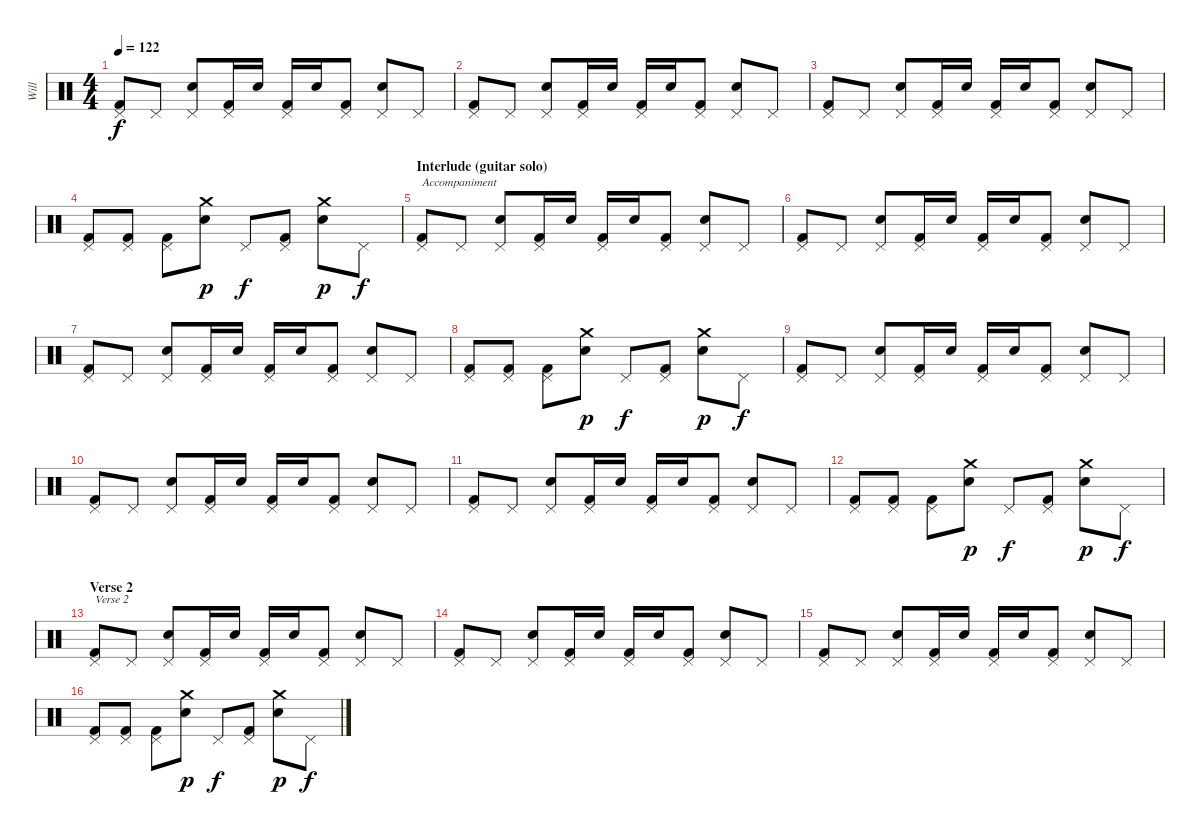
\track ("Will" "Will") {instrument percussion}
\staff {score}
\articulation defaults
\ts (4 4)
\tempo 122
\clef neutral
\ks c
("Pedal Hi-Hat (hit)" "Kick (hit) 2").8{dy f} "Pedal Hi-Hat (hit)".8 ("Pedal Hi-Hat (hit)" "Electric Snare (hit)").8 ("Pedal Hi-Hat (hit)" "Kick (hit) 2").16 "Electric Snare (hit)".16 ("Pedal Hi-Hat (hit)" "Kick (hit) 2").16 "Electric Snare (hit)".16 ("Pedal Hi-Hat (hit)" "Kick (hit) 2").8 ("Pedal Hi-Hat (hit)" "Electric Snare (hit)").8 "Pedal Hi-Hat (hit)".8 |
("Pedal Hi-Hat (hit)" "Kick (hit) 2").8 "Pedal Hi-Hat (hit)".8 ("Pedal Hi-Hat (hit)" "Electric Snare (hit)").8 ("Pedal Hi-Hat (hit)" "Kick (hit) 2").16 "Electric Snare (hit)".16 ("Pedal Hi-Hat (hit)" "Kick (hit) 2").16 "Electric Snare (hit)".16 ("Pedal Hi-Hat (hit)" "Kick (hit) 2").8 ("Pedal Hi-Hat (hit)" "Electric Snare (hit)").8 "Pedal Hi-Hat (hit)".8 |
("Pedal Hi-Hat (hit)" "Kick (hit) 2").8 "Pedal Hi-Hat (hit)".8 ("Pedal Hi-Hat (hit)" "Electric Snare (hit)").8 ("Pedal Hi-Hat (hit)" "Kick (hit) 2").16 "Electric Snare (hit)".16 ("Pedal Hi-Hat (hit)" "Kick (hit) 2").16 "Electric Snare (hit)".16 ("Pedal Hi-Hat (hit)" "Kick (hit) 2").8 ("Pedal Hi-Hat (hit)" "Electric Snare (hit)").8 "Pedal Hi-Hat (hit)".8 |
("Pedal Hi-Hat (hit)" "Kick (hit) 2").8 ("Pedal Hi-Hat (hit)" "Kick (hit) 2").8 ("Pedal Hi-Hat (hit)" "Kick (hit) 2").8 ("Crash medium (hit)" "Electric Snare (hit)").8{dy p} "Pedal Hi-Hat (hit)".8{dy f} ("Pedal Hi-Hat (hit)" "Kick (hit) 2").8 ("Crash medium (hit)" "Electric Snare (hit)").8{dy p} "Pedal Hi-Hat (hit)".8{dy f} |
\section ("" "Interlude (guitar solo)")
("Pedal Hi-Hat (hit)" "Kick (hit) 2").8{txt "Accompaniment"} "Pedal Hi-Hat (hit)".8 ("Pedal Hi-Hat (hit)" "Electric Snare (hit)").8 ("Pedal Hi-Hat (hit)" "Kick (hit) 2").16 "Electric Snare (hit)".16 ("Pedal Hi-Hat (hit)" "Kick (hit) 2").16 "Electric Snare (hit)".16 ("Pedal Hi-Hat (hit)" "Kick (hit) 2").8 ("Pedal Hi-Hat (hit)" "Electric Snare (hit)").8 "Pedal Hi-Hat (hit)".8 |
("Pedal Hi-Hat (hit)" "Kick (hit) 2").8 "Pedal Hi-Hat (hit)".8 ("Pedal Hi-Hat (hit)" "Electric Snare (hit)").8 ("Pedal Hi-Hat (hit)" "Kick (hit) 2").16 "Electric Snare (hit)".16 ("Pedal Hi-Hat (hit)" "Kick (hit) 2").16 "Electric Snare (hit)".16 ("Pedal Hi-Hat (hit)" "Kick (hit) 2").8 ("Pedal Hi-Hat (hit)" "Electric Snare (hit)").8 "Pedal Hi-Hat (hit)".8 |
("Pedal Hi-Hat (hit)" "Kick (hit) 2").8 "Pedal Hi-Hat (hit)".8 ("Pedal Hi-Hat (hit)" "Electric Snare (hit)").8 ("Pedal Hi-Hat (hit)" "Kick (hit) 2").16 "Electric Snare (hit)".16 ("Pedal Hi-Hat (hit)" "Kick (hit) 2").16 "Electric Snare (hit)".16 ("Pedal Hi-Hat (hit)" "Kick (hit) 2").8 ("Pedal Hi-Hat (hit)" "Electric Snare (hit)").8 "Pedal Hi-Hat (hit)".8 |
("Pedal Hi-Hat (hit)" "Kick (hit) 2").8 ("Pedal Hi-Hat (hit)" "Kick (hit) 2").8 ("Pedal Hi-Hat (hit)" "Kick (hit) 2").8 ("Crash medium (hit)" "Electric Snare (hit)").8{dy p} "Pedal Hi-Hat (hit)".8{dy f} ("Pedal Hi-Hat (hit)" "Kick (hit) 2").8 ("Crash medium (hit)" "Electric Snare (hit)").8{dy p} "Pedal Hi-Hat (hit)".8{dy f} |
("Pedal Hi-Hat (hit)" "Kick (hit) 2").8 "Pedal Hi-Hat (hit)".8 ("Pedal Hi-Hat (hit)" "Electric Snare (hit)").8 ("Pedal Hi-Hat (hit)" "Kick (hit) 2").16 "Electric Snare (hit)".16 ("Pedal Hi-Hat (hit)" "Kick (hit) 2").16 "Electric Snare (hit)".16 ("Pedal Hi-Hat (hit)" "Kick (hit) 2").8 ("Pedal Hi-Hat (hit)" "Electric Snare (hit)").8 "Pedal Hi-Hat (hit)".8 |
("Pedal Hi-Hat (hit)" "Kick (hit) 2").8 "Pedal Hi-Hat (hit)".8 ("Pedal Hi-Hat (hit)" "Electric Snare (hit)").8 ("Pedal Hi-Hat (hit)" "Kick (hit) 2").16 "Electric Snare (hit)".16 ("Pedal Hi-Hat (hit)" "Kick (hit) 2").16 "Electric Snare (hit)".16 ("Pedal Hi-Hat (hit)" "Kick (hit) 2").8 ("Pedal Hi-Hat (hit)" "Electric Snare (hit)").8 "Pedal Hi-Hat (hit)".8 |
("Pedal Hi-Hat (hit)" "Kick (hit) 2").8 "Pedal Hi-Hat (hit)".8 ("Pedal Hi-Hat (hit)" "Electric Snare (hit)").8 ("Pedal Hi-Hat (hit)" "Kick (hit) 2").16 "Electric Snare (hit)".16 ("Pedal Hi-Hat (hit)" "Kick (hit) 2").16 "Electric Snare (hit)".16 ("Pedal Hi-Hat (hit)" "Kick (hit) 2").8 ("Pedal Hi-Hat (hit)" "Electric Snare (hit)").8 "Pedal Hi-Hat (hit)".8 |
("Pedal Hi-Hat (hit)" "Kick (hit) 2").8 ("Pedal Hi-Hat (hit)" "Kick (hit) 2").8 ("Pedal Hi-Hat (hit)" "Kick (hit) 2").8 ("Crash medium (hit)" "Electric Snare (hit)").8{dy p} "Pedal Hi-Hat (hit)".8{dy f} ("Pedal Hi-Hat (hit)" "Kick (hit) 2").8 ("Crash medium (hit)" "Electric Snare (hit)").8{dy p} "Pedal Hi-Hat (hit)".8{dy f} |
\section ("" "Verse 2")
("Pedal Hi-Hat (hit)" "Kick (hit) 2").8{txt "Verse 2"} "Pedal Hi-Hat (hit)".8 ("Pedal Hi-Hat (hit)" "Electric Snare (hit)").8 ("Pedal Hi-Hat (hit)" "Kick (hit) 2").16 "Electric Snare (hit)".16 ("Pedal Hi-Hat (hit)" "Kick (hit) 2").16 "Electric Snare (hit)".16 ("Pedal Hi-Hat (hit)" "Kick (hit) 2").8 ("Pedal Hi-Hat (hit)" "Electric Snare (hit)").8 "Pedal Hi-Hat (hit)".8 |
("Pedal Hi-Hat (hit)" "Kick (hit) 2").8 "Pedal Hi-Hat (hit)".8 ("Pedal Hi-Hat (hit)" "Electric Snare (hit)").8 ("Pedal Hi-Hat (hit)" "Kick (hit) 2").16 "Electric Snare (hit)".16 ("Pedal Hi-Hat (hit)" "Kick (hit) 2").16 "Electric Snare (hit)".16 ("Pedal Hi-Hat (hit)" "Kick (hit) 2").8 ("Pedal Hi-Hat (hit)" "Electric Snare (hit)").8 "Pedal Hi-Hat (hit)".8 |
("Pedal Hi-Hat (hit)" "Kick (hit) 2").8 "Pedal Hi-Hat (hit)".8 ("Pedal Hi-Hat (hit)" "Electric Snare (hit)").8 ("Pedal Hi-Hat (hit)" "Kick (hit) 2").16 "Electric Snare (hit)".16 ("Pedal Hi-Hat (hit)" "Kick (hit) 2").16 "Electric Snare (hit)".16 ("Pedal Hi-Hat (hit)" "Kick (hit) 2").8 ("Pedal Hi-Hat (hit)" "Electric Snare (hit)").8 "Pedal Hi-Hat (hit)".8 |
("Pedal Hi-Hat (hit)" "Kick (hit) 2").8 ("Pedal Hi-Hat (hit)" "Kick (hit) 2").8 ("Pedal Hi-Hat (hit)" "Kick (hit) 2").8 ("Crash medium (hit)" "Electric Snare (hit)").8{dy p} "Pedal Hi-Hat (hit)".8{dy f} ("Pedal Hi-Hat (hit)" "Kick (hit) 2").8 ("Crash medium (hit)" "Electric Snare (hit)").8{dy p} "Pedal Hi-Hat (hit)".8{dy f}
